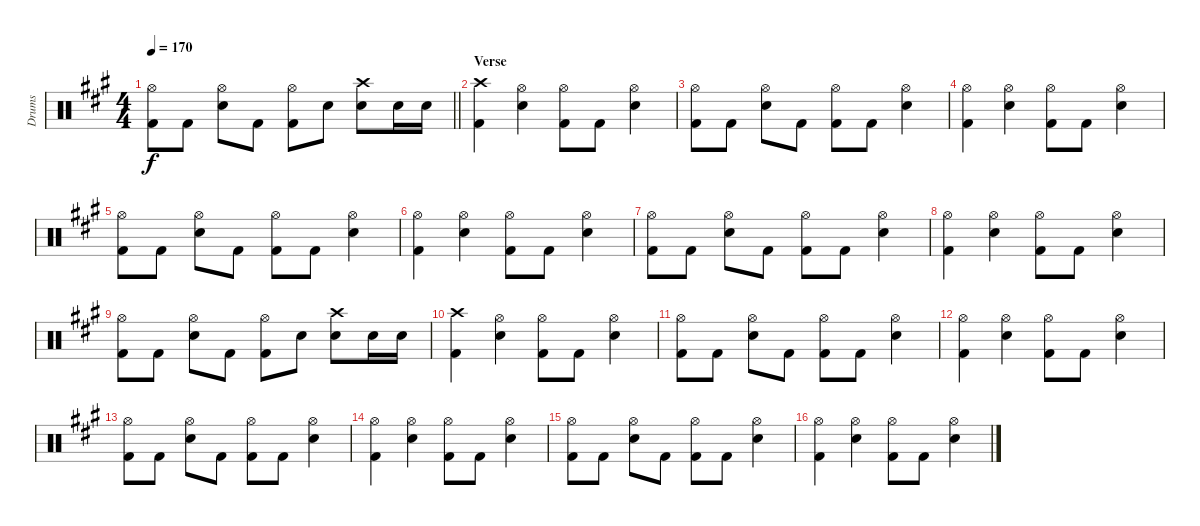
\track ("Drums" "Drums") {instrument percussion}
\staff {score}
\articulation defaults
\ts (4 4)
\tempo 170
\clef neutral
\barLineRight lightlight
\ks f#minor
("Hi-Hat (open)" "Kick (hit) 2").8{dy f} "Kick (hit) 2".8 ("Hi-Hat (open)" "Snare (hit) 2").8 "Kick (hit) 2".8 ("Hi-Hat (open)" "Kick (hit) 2").8 "Snare (hit) 2".8 ("Crash high (hit)" "Snare (hit) 2").8 "Snare (hit) 2".16 "Snare (hit) 2".16 |
\section ("" "Verse")
("Crash high (hit)" "Kick (hit) 2").4 ("Hi-Hat (open)" "Snare (hit) 2").4 ("Hi-Hat (open)" "Kick (hit) 2").8 "Kick (hit) 2".8 ("Hi-Hat (open)" "Snare (hit) 2").4 |
("Hi-Hat (open)" "Kick (hit) 2").8 "Kick (hit) 2".8 ("Hi-Hat (open)" "Snare (hit) 2").8 "Kick (hit) 2".8 ("Hi-Hat (open)" "Kick (hit) 2").8 "Kick (hit) 2".8 ("Hi-Hat (open)" "Snare (hit) 2").4 |
("Hi-Hat (open)" "Kick (hit) 2").4 ("Hi-Hat (open)" "Snare (hit) 2").4 ("Hi-Hat (open)" "Kick (hit) 2").8 "Kick (hit) 2".8 ("Hi-Hat (open)" "Snare (hit) 2").4 |
("Hi-Hat (open)" "Kick (hit) 2").8 "Kick (hit) 2".8 ("Hi-Hat (open)" "Snare (hit) 2").8 "Kick (hit) 2".8 ("Hi-Hat (open)" "Kick (hit) 2").8 "Kick (hit) 2".8 ("Hi-Hat (open)" "Snare (hit) 2").4 |
("Hi-Hat (open)" "Kick (hit) 2").4 ("Hi-Hat (open)" "Snare (hit) 2").4 ("Hi-Hat (open)" "Kick (hit) 2").8 "Kick (hit) 2".8 ("Hi-Hat (open)" "Snare (hit) 2").4 |
("Hi-Hat (open)" "Kick (hit) 2").8 "Kick (hit) 2".8 ("Hi-Hat (open)" "Snare (hit) 2").8 "Kick (hit) 2".8 ("Hi-Hat (open)" "Kick (hit) 2").8 "Kick (hit) 2".8 ("Hi-Hat (open)" "Snare (hit) 2").4 |
("Hi-Hat (open)" "Kick (hit) 2").4 ("Hi-Hat (open)" "Snare (hit) 2").4 ("Hi-Hat (open)" "Kick (hit) 2").8 "Kick (hit) 2".8 ("Hi-Hat (open)" "Snare (hit) 2").4 |
("Hi-Hat (open)" "Kick (hit) 2").8 "Kick (hit) 2".8 ("Hi-Hat (open)" "Snare (hit) 2").8 "Kick (hit) 2".8 ("Hi-Hat (open)" "Kick (hit) 2").8 "Snare (hit) 2".8 ("Crash high (hit)" "Snare (hit) 2").8 "Snare (hit) 2".16 "Snare (hit) 2".16 |
("Crash high (hit)" "Kick (hit) 2").4 ("Hi-Hat (open)" "Snare (hit) 2").4 ("Hi-Hat (open)" "Kick (hit) 2").8 "Kick (hit) 2".8 ("Hi-Hat (open)" "Snare (hit) 2").4 |
("Hi-Hat (open)" "Kick (hit) 2").8 "Kick (hit) 2".8 ("Hi-Hat (open)" "Snare (hit) 2").8 "Kick (hit) 2".8 ("Hi-Hat (open)" "Kick (hit) 2").8 "Kick (hit) 2".8 ("Hi-Hat (open)" "Snare (hit) 2").4 |
("Hi-Hat (open)" "Kick (hit) 2").4 ("Hi-Hat (open)" "Snare (hit) 2").4 ("Hi-Hat (open)" "Kick (hit) 2").8 "Kick (hit) 2".8 ("Hi-Hat (open)" "Snare (hit) 2").4 |
("Hi-Hat (open)" "Kick (hit) 2").8 "Kick (hit) 2".8 ("Hi-Hat (open)" "Snare (hit) 2").8 "Kick (hit) 2".8 ("Hi-Hat (open)" "Kick (hit) 2").8 "Kick (hit) 2".8 ("Hi-Hat (open)" "Snare (hit) 2").4 |
("Hi-Hat (open)" "Kick (hit) 2").4 ("Hi-Hat (open)" "Snare (hit) 2").4 ("Hi-Hat (open)" "Kick (hit) 2").8 "Kick (hit) 2".8 ("Hi-Hat (open)" "Snare (hit) 2").4 |
("Hi-Hat (open)" "Kick (hit) 2").8 "Kick (hit) 2".8 ("Hi-Hat (open)" "Snare (hit) 2").8 "Kick (hit) 2".8 ("Hi-Hat (open)" "Kick (hit) 2").8 "Kick (hit) 2".8 ("Hi-Hat (open)" "Snare (hit) 2").4 |
("Hi-Hat (open)" "Kick (hit) 2").4 ("Hi-Hat (open)" "Snare (hit) 2").4 ("Hi-Hat (open)" "Kick (hit) 2").8 "Kick (hit) 2".8 ("Hi-Hat (open)" "Snare (hit) 2").4
